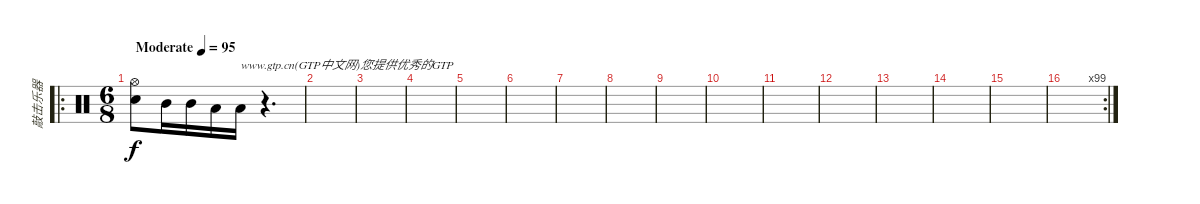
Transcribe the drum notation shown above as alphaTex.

\track ("敲击乐器" "敲击乐器") {instrument percussion}
\staff {score}
\articulation defaults
\ro
\ts (6 8)
\tempo (95 "Moderate")
\clef neutral
\ks c
("Snare (hit) 2" "Hi-Hat (open)").8{dy f} "Mid Tom (hit)".16 "Mid Tom (hit)".16 "Low Tom (hit)".16 "Low Tom (hit)".16{txt "www.gtp.cn(GTP中文网)您提供优秀的GTP"} r.4{d} |
|
|
|
|
|
|
|
|
|
|
|
|
|
|
\rc 99
